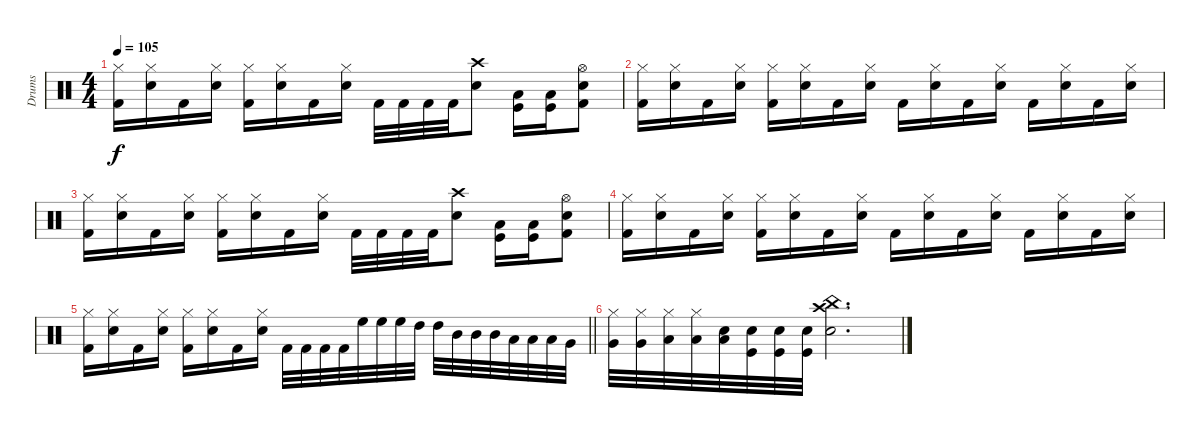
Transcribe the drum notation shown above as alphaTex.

\track ("Drums" "Drums") {instrument percussion}
\staff {score}
\articulation defaults
\ts (4 4)
\tempo 105
\clef neutral
\ks c
("Hi-Hat (closed)" "Kick (hit) 2").16{dy f} ("Hi-Hat (closed)" "Snare (hit) 2").16 "Kick (hit) 2".16 ("Hi-Hat (closed)" "Snare (hit) 2").16 ("Hi-Hat (closed)" "Kick (hit) 2").16 ("Hi-Hat (closed)" "Snare (hit) 2").16 "Kick (hit) 2".16 ("Hi-Hat (closed)" "Snare (hit) 2").16 "Kick (hit) 2".32 "Kick (hit) 2".32 "Kick (hit) 2".32 "Kick (hit) 2".32 ("Snare (hit) 2" "Crash high (hit)").8 ("Kick (hit)" "Low Floor Tom (hit)").16 ("Kick (hit)" "Low Floor Tom (hit)").16 ("Hi-Hat (open)" "Snare (hit) 2" "Kick (hit) 2").8 |
("Hi-Hat (closed)" "Kick (hit) 2").16 ("Hi-Hat (closed)" "Snare (hit) 2").16 "Kick (hit) 2".16 ("Hi-Hat (closed)" "Snare (hit) 2").16 ("Hi-Hat (closed)" "Kick (hit) 2").16 ("Hi-Hat (closed)" "Snare (hit) 2").16 "Kick (hit) 2".16 ("Hi-Hat (closed)" "Snare (hit) 2").16 "Kick (hit) 2".16 ("Hi-Hat (closed)" "Snare (hit) 2").16 "Kick (hit) 2".16 ("Hi-Hat (closed)" "Snare (hit) 2").16 "Kick (hit) 2".16 ("Hi-Hat (closed)" "Snare (hit) 2").16 "Kick (hit) 2".16 ("Hi-Hat (closed)" "Snare (hit) 2").16 |
("Hi-Hat (closed)" "Kick (hit) 2").16 ("Hi-Hat (closed)" "Snare (hit) 2").16 "Kick (hit) 2".16 ("Hi-Hat (closed)" "Snare (hit) 2").16 ("Hi-Hat (closed)" "Kick (hit) 2").16 ("Hi-Hat (closed)" "Snare (hit) 2").16 "Kick (hit) 2".16 ("Hi-Hat (closed)" "Snare (hit) 2").16 "Kick (hit) 2".32 "Kick (hit) 2".32 "Kick (hit) 2".32 "Kick (hit) 2".32 ("Snare (hit) 2" "Crash high (hit)").8 ("Kick (hit)" "Low Floor Tom (hit)").16 ("Kick (hit)" "Low Floor Tom (hit)").16 ("Hi-Hat (open)" "Snare (hit) 2" "Kick (hit) 2").8 |
("Hi-Hat (closed)" "Kick (hit) 2").16 ("Hi-Hat (closed)" "Snare (hit) 2").16 "Kick (hit) 2".16 ("Hi-Hat (closed)" "Snare (hit) 2").16 ("Hi-Hat (closed)" "Kick (hit) 2").16 ("Hi-Hat (closed)" "Snare (hit) 2").16 "Kick (hit) 2".16 ("Hi-Hat (closed)" "Snare (hit) 2").16 "Kick (hit) 2".16 ("Hi-Hat (closed)" "Snare (hit) 2").16 "Kick (hit) 2".16 ("Hi-Hat (closed)" "Snare (hit) 2").16 "Kick (hit) 2".16 ("Hi-Hat (closed)" "Snare (hit) 2").16 "Kick (hit) 2".16 ("Hi-Hat (closed)" "Snare (hit) 2").16 |
\barLineRight lightlight
("Hi-Hat (closed)" "Kick (hit) 2").16 ("Hi-Hat (closed)" "Snare (hit) 2").16 "Kick (hit) 2".16 ("Hi-Hat (closed)" "Snare (hit) 2").16 ("Hi-Hat (closed)" "Kick (hit) 2").16 ("Hi-Hat (closed)" "Snare (hit) 2").16 "Kick (hit) 2".16 ("Hi-Hat (closed)" "Snare (hit) 2").16 "Kick (hit) 2".32 "Kick (hit) 2".32 "Kick (hit) 2".32 "Kick (hit) 2".32 "High Floor Tom (hit)".32 "High Floor Tom (hit)".32 "High Floor Tom (hit)".32 "High Tom (hit)".32 "High Tom (hit)".32 "Mid Tom (hit)".32 "Mid Tom (hit)".32 "Mid Tom (hit)".32 "Low Tom (hit)".32 "Low Tom (hit)".32 "Low Tom (hit)".32 "Very Low Tom (hit)".32 |
("Hi-Hat (closed)" "Very Low Tom (hit)").32 ("Hi-Hat (closed)" "Very Low Tom (hit)").32 ("Hi-Hat (closed)" "Low Floor Tom (hit)").32 ("Hi-Hat (closed)" "Low Floor Tom (hit)").32 ("Snare (hit) 2" "Low Floor Tom (hit)").32 ("Snare (hit) 2" "Kick (hit)").32 ("Snare (hit) 2" "Kick (hit)").32 ("Snare (hit) 2" "Kick (hit)").32 ("China (hit)" "Snare (hit) 2" "Crash high (hit)").2{d}
